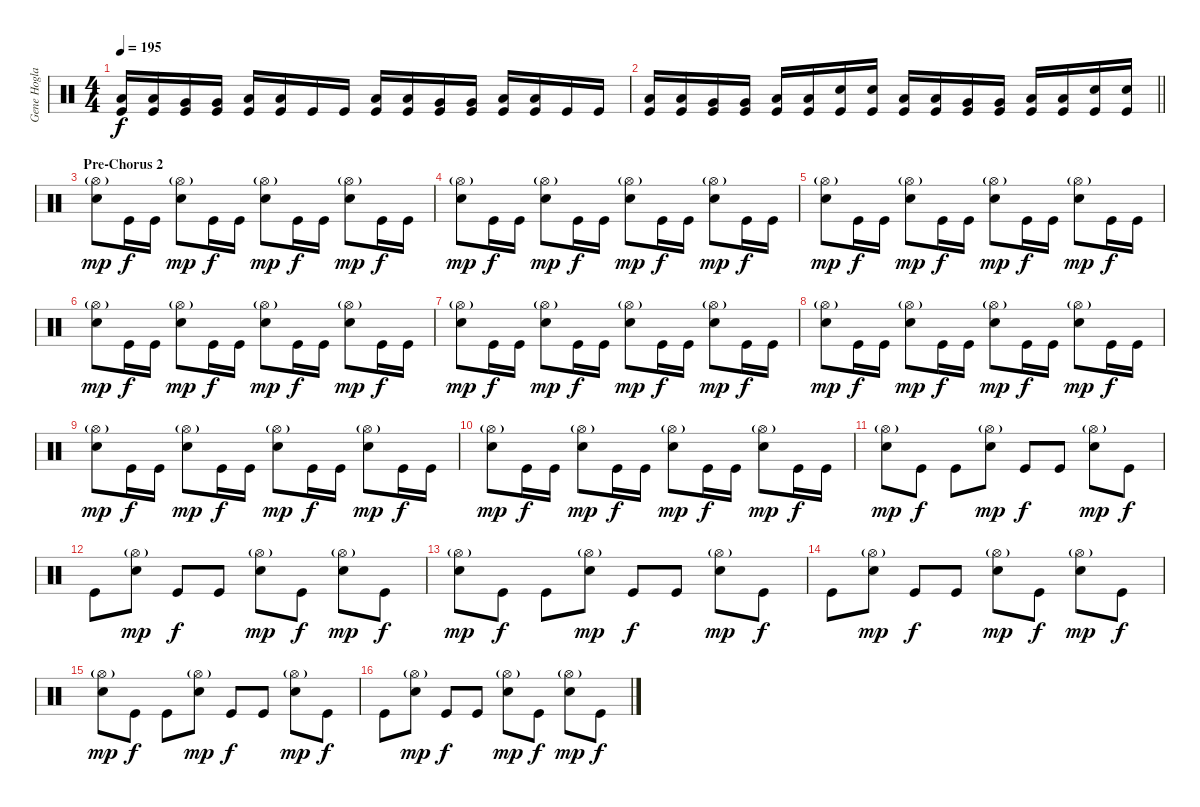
\track ("Gene Hoglan" "Gene Hogla") {instrument percussion}
\staff {score}
\articulation defaults
\ts (4 4)
\tempo 195
\clef neutral
\ks c
("Low Tom (hit)" "Kick (hit)").16{dy f} ("Low Tom (hit)" "Kick (hit)").16 ("Very Low Tom (hit)" "Kick (hit)").16 ("Very Low Tom (hit)" "Kick (hit)").16 ("Low Floor Tom (hit)" "Kick (hit)").16 ("Low Floor Tom (hit)" "Kick (hit)").16 "Kick (hit)".16 "Kick (hit)".16 ("Low Tom (hit)" "Kick (hit)").16 ("Low Tom (hit)" "Kick (hit)").16 ("Very Low Tom (hit)" "Kick (hit)").16 ("Very Low Tom (hit)" "Kick (hit)").16 ("Low Floor Tom (hit)" "Kick (hit)").16 ("Low Floor Tom (hit)" "Kick (hit)").16 "Kick (hit)".16 "Kick (hit)".16 |
\barLineRight lightlight
("Low Tom (hit)" "Kick (hit)").16 ("Low Tom (hit)" "Kick (hit)").16 ("Very Low Tom (hit)" "Kick (hit)").16 ("Very Low Tom (hit)" "Kick (hit)").16 ("Low Floor Tom (hit)" "Kick (hit)").16 ("Low Floor Tom (hit)" "Kick (hit)").16 ("Electric Snare (hit)" "Kick (hit)").16 ("Electric Snare (hit)" "Kick (hit)").16 ("Low Tom (hit)" "Kick (hit)").16 ("Low Tom (hit)" "Kick (hit)").16 ("Very Low Tom (hit)" "Kick (hit)").16 ("Very Low Tom (hit)" "Kick (hit)").16 ("Low Floor Tom (hit)" "Kick (hit)").16 ("Low Floor Tom (hit)" "Kick (hit)").16 ("Electric Snare (hit)" "Kick (hit)").16 ("Electric Snare (hit)" "Kick (hit)").16 |
\section ("" "Pre-Chorus 2")
("Hi-Hat (open)"{g} "Electric Snare (hit)").8{dy mp} "Kick (hit)".16{dy f} "Kick (hit)".16 ("Hi-Hat (open)"{g} "Electric Snare (hit)").8{dy mp} "Kick (hit)".16{dy f} "Kick (hit)".16 ("Hi-Hat (open)"{g} "Electric Snare (hit)").8{dy mp} "Kick (hit)".16{dy f} "Kick (hit)".16 ("Hi-Hat (open)"{g} "Electric Snare (hit)").8{dy mp} "Kick (hit)".16{dy f} "Kick (hit)".16 |
("Hi-Hat (open)"{g} "Electric Snare (hit)").8{dy mp} "Kick (hit)".16{dy f} "Kick (hit)".16 ("Hi-Hat (open)"{g} "Electric Snare (hit)").8{dy mp} "Kick (hit)".16{dy f} "Kick (hit)".16 ("Hi-Hat (open)"{g} "Electric Snare (hit)").8{dy mp} "Kick (hit)".16{dy f} "Kick (hit)".16 ("Hi-Hat (open)"{g} "Electric Snare (hit)").8{dy mp} "Kick (hit)".16{dy f} "Kick (hit)".16 |
("Hi-Hat (open)"{g} "Electric Snare (hit)").8{dy mp} "Kick (hit)".16{dy f} "Kick (hit)".16 ("Hi-Hat (open)"{g} "Electric Snare (hit)").8{dy mp} "Kick (hit)".16{dy f} "Kick (hit)".16 ("Hi-Hat (open)"{g} "Electric Snare (hit)").8{dy mp} "Kick (hit)".16{dy f} "Kick (hit)".16 ("Hi-Hat (open)"{g} "Electric Snare (hit)").8{dy mp} "Kick (hit)".16{dy f} "Kick (hit)".16 |
("Hi-Hat (open)"{g} "Electric Snare (hit)").8{dy mp} "Kick (hit)".16{dy f} "Kick (hit)".16 ("Hi-Hat (open)"{g} "Electric Snare (hit)").8{dy mp} "Kick (hit)".16{dy f} "Kick (hit)".16 ("Hi-Hat (open)"{g} "Electric Snare (hit)").8{dy mp} "Kick (hit)".16{dy f} "Kick (hit)".16 ("Hi-Hat (open)"{g} "Electric Snare (hit)").8{dy mp} "Kick (hit)".16{dy f} "Kick (hit)".16 |
("Hi-Hat (open)"{g} "Electric Snare (hit)").8{dy mp} "Kick (hit)".16{dy f} "Kick (hit)".16 ("Hi-Hat (open)"{g} "Electric Snare (hit)").8{dy mp} "Kick (hit)".16{dy f} "Kick (hit)".16 ("Hi-Hat (open)"{g} "Electric Snare (hit)").8{dy mp} "Kick (hit)".16{dy f} "Kick (hit)".16 ("Hi-Hat (open)"{g} "Electric Snare (hit)").8{dy mp} "Kick (hit)".16{dy f} "Kick (hit)".16 |
("Hi-Hat (open)"{g} "Electric Snare (hit)").8{dy mp} "Kick (hit)".16{dy f} "Kick (hit)".16 ("Hi-Hat (open)"{g} "Electric Snare (hit)").8{dy mp} "Kick (hit)".16{dy f} "Kick (hit)".16 ("Hi-Hat (open)"{g} "Electric Snare (hit)").8{dy mp} "Kick (hit)".16{dy f} "Kick (hit)".16 ("Hi-Hat (open)"{g} "Electric Snare (hit)").8{dy mp} "Kick (hit)".16{dy f} "Kick (hit)".16 |
("Hi-Hat (open)"{g} "Electric Snare (hit)").8{dy mp} "Kick (hit)".16{dy f} "Kick (hit)".16 ("Hi-Hat (open)"{g} "Electric Snare (hit)").8{dy mp} "Kick (hit)".16{dy f} "Kick (hit)".16 ("Hi-Hat (open)"{g} "Electric Snare (hit)").8{dy mp} "Kick (hit)".16{dy f} "Kick (hit)".16 ("Hi-Hat (open)"{g} "Electric Snare (hit)").8{dy mp} "Kick (hit)".16{dy f} "Kick (hit)".16 |
("Hi-Hat (open)"{g} "Electric Snare (hit)").8{dy mp} "Kick (hit)".16{dy f} "Kick (hit)".16 ("Hi-Hat (open)"{g} "Electric Snare (hit)").8{dy mp} "Kick (hit)".16{dy f} "Kick (hit)".16 ("Hi-Hat (open)"{g} "Electric Snare (hit)").8{dy mp} "Kick (hit)".16{dy f} "Kick (hit)".16 ("Hi-Hat (open)"{g} "Electric Snare (hit)").8{dy mp} "Kick (hit)".16{dy f} "Kick (hit)".16 |
("Hi-Hat (open)"{g} "Electric Snare (hit)").8{dy mp} "Kick (hit)".8{dy f} "Kick (hit)".8 ("Hi-Hat (open)"{g} "Electric Snare (hit)").8{dy mp} "Kick (hit)".8{dy f} "Kick (hit)".8 ("Hi-Hat (open)"{g} "Electric Snare (hit)").8{dy mp} "Kick (hit)".8{dy f} |
"Kick (hit)".8 ("Hi-Hat (open)"{g} "Electric Snare (hit)").8{dy mp} "Kick (hit)".8{dy f} "Kick (hit)".8 ("Hi-Hat (open)"{g} "Electric Snare (hit)").8{dy mp} "Kick (hit)".8{dy f} ("Hi-Hat (open)"{g} "Electric Snare (hit)").8{dy mp} "Kick (hit)".8{dy f} |
("Hi-Hat (open)"{g} "Electric Snare (hit)").8{dy mp} "Kick (hit)".8{dy f} "Kick (hit)".8 ("Hi-Hat (open)"{g} "Electric Snare (hit)").8{dy mp} "Kick (hit)".8{dy f} "Kick (hit)".8 ("Hi-Hat (open)"{g} "Electric Snare (hit)").8{dy mp} "Kick (hit)".8{dy f} |
"Kick (hit)".8 ("Hi-Hat (open)"{g} "Electric Snare (hit)").8{dy mp} "Kick (hit)".8{dy f} "Kick (hit)".8 ("Hi-Hat (open)"{g} "Electric Snare (hit)").8{dy mp} "Kick (hit)".8{dy f} ("Hi-Hat (open)"{g} "Electric Snare (hit)").8{dy mp} "Kick (hit)".8{dy f} |
("Hi-Hat (open)"{g} "Electric Snare (hit)").8{dy mp} "Kick (hit)".8{dy f} "Kick (hit)".8 ("Hi-Hat (open)"{g} "Electric Snare (hit)").8{dy mp} "Kick (hit)".8{dy f} "Kick (hit)".8 ("Hi-Hat (open)"{g} "Electric Snare (hit)").8{dy mp} "Kick (hit)".8{dy f} |
"Kick (hit)".8 ("Hi-Hat (open)"{g} "Electric Snare (hit)").8{dy mp} "Kick (hit)".8{dy f} "Kick (hit)".8 ("Hi-Hat (open)"{g} "Electric Snare (hit)").8{dy mp} "Kick (hit)".8{dy f} ("Hi-Hat (open)"{g} "Electric Snare (hit)").8{dy mp} "Kick (hit)".8{dy f}
